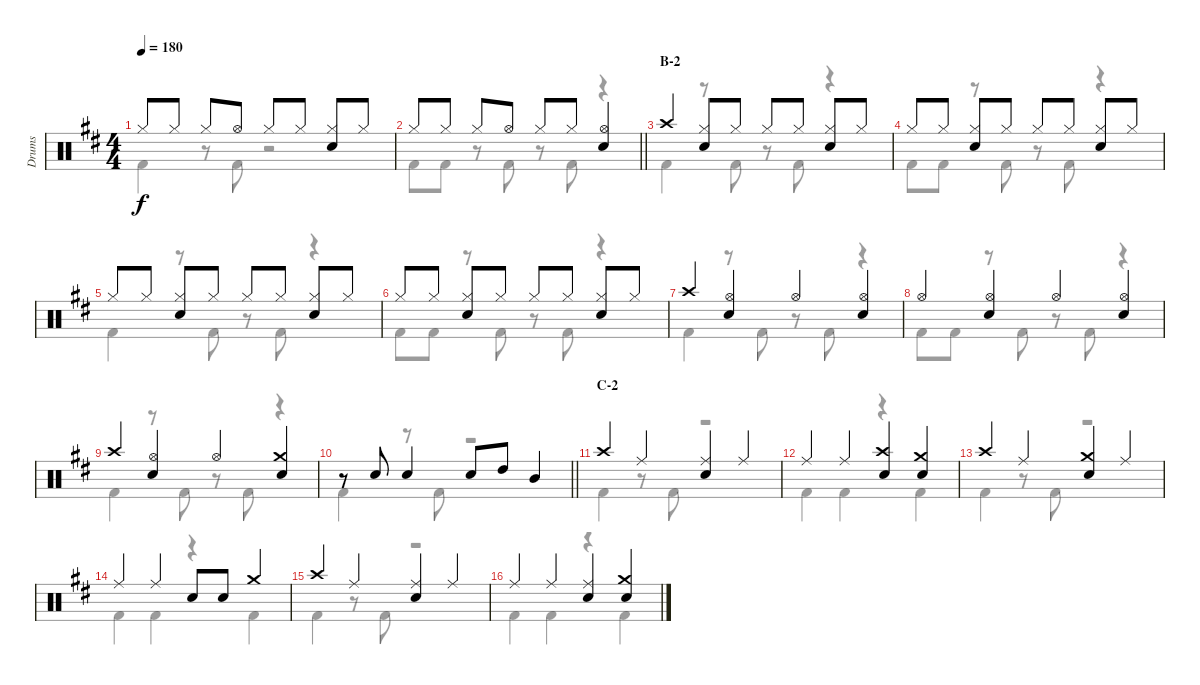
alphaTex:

\track ("Drums" "Drums") {instrument percussion}
\staff {score}
\articulation defaults
\voice
\ts (4 4)
\tempo 180
\clef neutral
\ks d "Hi-Hat (closed)".8{dy f} "Hi-Hat (closed)".8 "Hi-Hat (closed)".8 "Hi-Hat (open)".8 "Hi-Hat (closed)".8 "Hi-Hat (closed)".8
("Hi-Hat (closed)" "Snare (hit) 2").8 "Hi-Hat (closed)".8 |
\barLineRight lightlight "Hi-Hat (closed)".8 "Hi-Hat (closed)".8 "Hi-Hat (closed)".8 "Hi-Hat (open)".8 "Hi-Hat (closed)".8 "Hi-Hat (closed)".8
("Hi-Hat (open)" "Snare (hit) 2").4 |
\section ("" "B-2")
"Crash high (hit)".4 ("Hi-Hat (closed)" "Snare (hit) 2").8 "Hi-Hat (closed)".8 "Hi-Hat (closed)".8 "Hi-Hat (closed)".8 ("Hi-Hat (closed)" "Snare (hit) 2").8 "Hi-Hat (closed)".8 |
"Hi-Hat (closed)".8 "Hi-Hat (closed)".8 ("Hi-Hat (closed)" "Snare (hit) 2").8 "Hi-Hat (closed)".8 "Hi-Hat (closed)".8 "Hi-Hat (closed)".8 ("Hi-Hat (closed)" "Snare (hit) 2").8 "Hi-Hat (closed)".8 |
"Hi-Hat (closed)".8 "Hi-Hat (closed)".8 ("Hi-Hat (closed)" "Snare (hit) 2").8 "Hi-Hat (closed)".8 "Hi-Hat (closed)".8 "Hi-Hat (closed)".8 ("Hi-Hat (closed)" "Snare (hit) 2").8 "Hi-Hat (closed)".8 |
"Hi-Hat (closed)".8 "Hi-Hat (closed)".8 ("Hi-Hat (closed)" "Snare (hit) 2").8 "Hi-Hat (closed)".8 "Hi-Hat (closed)".8 "Hi-Hat (closed)".8 ("Hi-Hat (closed)" "Snare (hit) 2").8 "Hi-Hat (closed)".8 |
"Crash high (hit)".4 ("Hi-Hat (open)" "Snare (hit) 2").4 "Hi-Hat (open)".4 ("Hi-Hat (open)" "Snare (hit) 2").4 |
"Hi-Hat (open)".4 ("Hi-Hat (open)" "Snare (hit) 2").4 "Hi-Hat (open)".4 ("Hi-Hat (open)" "Snare (hit) 2").4 |
"Crash high (hit)".4 ("Hi-Hat (open)" "Snare (hit) 2").4 "Hi-Hat (open)".4 ("Crash medium (hit)" "Snare (hit) 2").4 |
\barLineRight lightlight
r.8 "Snare (hit) 2".8 "Snare (hit) 2".4 "Snare (hit) 2".8 "High Tom (hit)".8 "Mid Tom (hit)".4 |
\section ("" "C-2")
"Crash high (hit)".4 "Ride (middle)".4 ("Ride (middle)" "Snare (hit) 2").4 "Ride (middle)".4 |
"Ride (middle)".4 "Ride (middle)".4 ("Crash high (hit)" "Snare (hit) 2").4 ("Crash medium (hit)" "Snare (hit) 2").4 |
"Crash high (hit)".4 "Ride (middle)".4 ("Crash medium (hit)" "Snare (hit) 2").4 "Ride (middle)".4 |
"Ride (middle)".4 "Ride (middle)".4 "Snare (hit) 2".8 "Snare (hit) 2".8 "Crash medium (hit)".4 |
"Crash high (hit)".4 "Ride (middle)".4 ("Ride (middle)" "Snare (hit) 2").4 "Ride (middle)".4 |
"Ride (middle)".4 "Ride (middle)".4 ("Ride (middle)" "Snare (hit) 2").4 ("Crash medium (hit)" "Snare (hit) 2").4
\voice
\clef neutral
\ottava regular
\simile none
\ks d "Kick (hit) 2".4{dy f}
r.8 "Kick (hit) 2".8 r.2 |
\barLineRight lightlight "Kick (hit) 2".8 "Kick (hit) 2".8
r.8 "Kick (hit) 2".8 r.8 "Kick (hit) 2".8 r.4 |
"Kick (hit) 2".4 r.8 "Kick (hit) 2".8 r.8 "Kick (hit) 2".8 r.4 |
"Kick (hit) 2".8 "Kick (hit) 2".8 r.8 "Kick (hit) 2".8 r.8 "Kick (hit) 2".8 r.4 |
"Kick (hit) 2".4 r.8 "Kick (hit) 2".8 r.8 "Kick (hit) 2".8 r.4 |
"Kick (hit) 2".8 "Kick (hit) 2".8 r.8 "Kick (hit) 2".8 r.8 "Kick (hit) 2".8 r.4 |
"Kick (hit) 2".4 r.8 "Kick (hit) 2".8 r.8 "Kick (hit) 2".8 r.4 |
"Kick (hit) 2".8 "Kick (hit) 2".8 r.8 "Kick (hit) 2".8 r.8 "Kick (hit) 2".8 r.4 |
"Kick (hit) 2".4 r.8 "Kick (hit) 2".8 r.8 "Kick (hit) 2".8 r.4 |
\barLineRight lightlight "Kick (hit) 2".4
r.8 "Kick (hit) 2".8 r.2 |
"Kick (hit) 2".4 r.8 "Kick (hit) 2".8 r.2 |
"Kick (hit) 2".4 "Kick (hit) 2".4 r.4 "Kick (hit) 2".4 |
"Kick (hit) 2".4 r.8 "Kick (hit) 2".8 r.2 |
"Kick (hit) 2".4 "Kick (hit) 2".4 r.4 "Kick (hit) 2".4 |
"Kick (hit) 2".4 r.8 "Kick (hit) 2".8 r.2 |
"Kick (hit) 2".4 "Kick (hit) 2".4 r.4 "Kick (hit) 2".4
